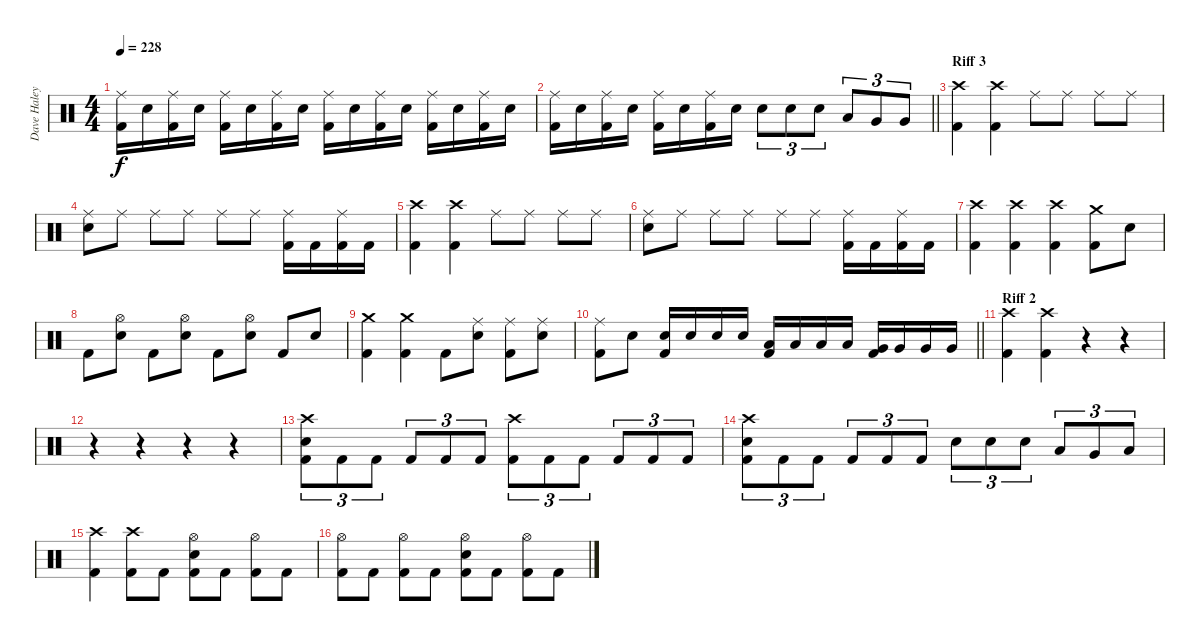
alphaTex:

\track ("Dave Haley" "Dave Haley") {instrument percussion}
\staff {score}
\articulation defaults
\ts (4 4)
\tempo 228
\clef neutral
\ks c
("Ride (middle)" "Kick (hit) 2").16{dy f} "Snare (hit) 2".16 ("Ride (middle)" "Kick (hit) 2").16 "Snare (hit) 2".16 ("Ride (middle)" "Kick (hit) 2").16 "Snare (hit) 2".16 ("Ride (middle)" "Kick (hit) 2").16 "Snare (hit) 2".16 ("Ride (middle)" "Kick (hit) 2").16 "Snare (hit) 2".16 ("Ride (middle)" "Kick (hit) 2").16 "Snare (hit) 2".16 ("Ride (middle)" "Kick (hit) 2").16 "Snare (hit) 2".16 ("Ride (middle)" "Kick (hit) 2").16 "Snare (hit) 2".16 |
\barLineRight lightlight
("Ride (middle)" "Kick (hit) 2").16 "Snare (hit) 2".16 ("Ride (middle)" "Kick (hit) 2").16 "Snare (hit) 2".16 ("Ride (middle)" "Kick (hit) 2").16 "Snare (hit) 2".16 ("Ride (middle)" "Kick (hit) 2").16 "Snare (hit) 2".16 "Snare (hit) 2".8{tu (3 2)} "Snare (hit) 2".8{tu (3 2)} "Snare (hit) 2".8{tu (3 2)} "Low Tom (hit)".8{tu (3 2)} "Very Low Tom (hit)".8{tu (3 2)} "Very Low Tom (hit)".8{tu (3 2)} |
\section ("" "Riff 3")
("Crash high (hit)" "Kick (hit) 2").4 ("Crash high (hit)" "Kick (hit) 2").4 "Ride (middle)".8 "Ride (middle)".8 "Ride (middle)".8 "Ride (middle)".8 |
("Ride (middle)" "Snare (hit) 2").8 "Ride (middle)".8 "Ride (middle)".8 "Ride (middle)".8 "Ride (middle)".8 "Ride (middle)".8 ("Ride (middle)" "Kick (hit) 2").16 "Kick (hit) 2".16 ("Ride (middle)" "Kick (hit) 2").16 "Kick (hit) 2".16 |
("Crash high (hit)" "Kick (hit) 2").4 ("Crash high (hit)" "Kick (hit) 2").4 "Ride (middle)".8 "Ride (middle)".8 "Ride (middle)".8 "Ride (middle)".8 |
("Ride (middle)" "Snare (hit) 2").8 "Ride (middle)".8 "Ride (middle)".8 "Ride (middle)".8 "Ride (middle)".8 "Ride (middle)".8 ("Ride (middle)" "Kick (hit) 2").16 "Kick (hit) 2".16 ("Ride (middle)" "Kick (hit) 2").16 "Kick (hit) 2".16 |
("Crash high (hit)" "Kick (hit) 2").4 ("Crash high (hit)" "Kick (hit) 2").4 ("Crash high (hit)" "Kick (hit) 2").4 ("Crash medium (hit)" "Kick (hit) 2").8 "Snare (hit) 2".8 |
"Kick (hit) 2".8 ("Hi-Hat (open)" "Snare (hit) 2").8 "Kick (hit) 2".8 ("Hi-Hat (open)" "Snare (hit) 2").8 "Kick (hit) 2".8 ("Hi-Hat (open)" "Snare (hit) 2").8 "Kick (hit) 2".8 "Snare (hit) 2".8 |
("Crash medium (hit)" "Kick (hit) 2").4 ("Crash medium (hit)" "Kick (hit) 2").4 "Kick (hit) 2".8 ("Ride (middle)" "Snare (hit) 2").8 ("Ride (middle)" "Kick (hit) 2").8 ("Ride (middle)" "Snare (hit) 2").8 |
\barLineRight lightlight
("Ride (middle)" "Kick (hit) 2").8 "Snare (hit) 2".8 ("Snare (hit) 2" "Kick (hit) 2").16 "Snare (hit) 2".16 "Snare (hit) 2".16 "Snare (hit) 2".16 ("Low Tom (hit)" "Kick (hit) 2").16 "Low Tom (hit)".16 "Low Tom (hit)".16 "Low Tom (hit)".16 ("Very Low Tom (hit)" "Kick (hit) 2").16 "Very Low Tom (hit)".16 "Very Low Tom (hit)".16 "Very Low Tom (hit)".16 |
\section ("" "Riff 2")
("Crash high (hit)" "Kick (hit) 2").4 ("Crash high (hit)" "Kick (hit) 2").4 r.4 r.4 |
r.4 r.4 r.4 r.4 |
("Crash high (hit)" "Snare (hit) 2" "Kick (hit) 2").8{tu (3 2)} "Kick (hit) 2".8{tu (3 2)} "Kick (hit) 2".8{tu (3 2)} "Kick (hit) 2".8{tu (3 2)} "Kick (hit) 2".8{tu (3 2)} "Kick (hit) 2".8{tu (3 2)} ("Crash high (hit)" "Kick (hit) 2").8{tu (3 2)} "Kick (hit) 2".8{tu (3 2)} "Kick (hit) 2".8{tu (3 2)} "Kick (hit) 2".8{tu (3 2)} "Kick (hit) 2".8{tu (3 2)} "Kick (hit) 2".8{tu (3 2)} |
("Crash high (hit)" "Snare (hit) 2" "Kick (hit) 2").8{tu (3 2)} "Kick (hit) 2".8{tu (3 2)} "Kick (hit) 2".8{tu (3 2)} "Kick (hit) 2".8{tu (3 2)} "Kick (hit) 2".8{tu (3 2)} "Kick (hit) 2".8{tu (3 2)} "Snare (hit) 2".8{tu (3 2)} "Snare (hit) 2".8{tu (3 2)} "Snare (hit) 2".8{tu (3 2)} "Low Tom (hit)".8{tu (3 2)} "Very Low Tom (hit)".8{tu (3 2)} "Low Floor Tom (hit)".8{tu (3 2)} |
("Crash high (hit)" "Kick (hit) 2").4 ("Crash high (hit)" "Kick (hit) 2").8 "Kick (hit) 2".8 ("Hi-Hat (open)" "Snare (hit) 2" "Kick (hit) 2").8 "Kick (hit) 2".8 ("Hi-Hat (open)" "Kick (hit) 2").8 "Kick (hit) 2".8 |
("Hi-Hat (open)" "Kick (hit) 2").8 "Kick (hit) 2".8 ("Hi-Hat (open)" "Kick (hit) 2").8 "Kick (hit) 2".8 ("Hi-Hat (open)" "Snare (hit) 2" "Kick (hit) 2").8 "Kick (hit) 2".8 ("Hi-Hat (open)" "Kick (hit) 2").8 "Kick (hit) 2".8
